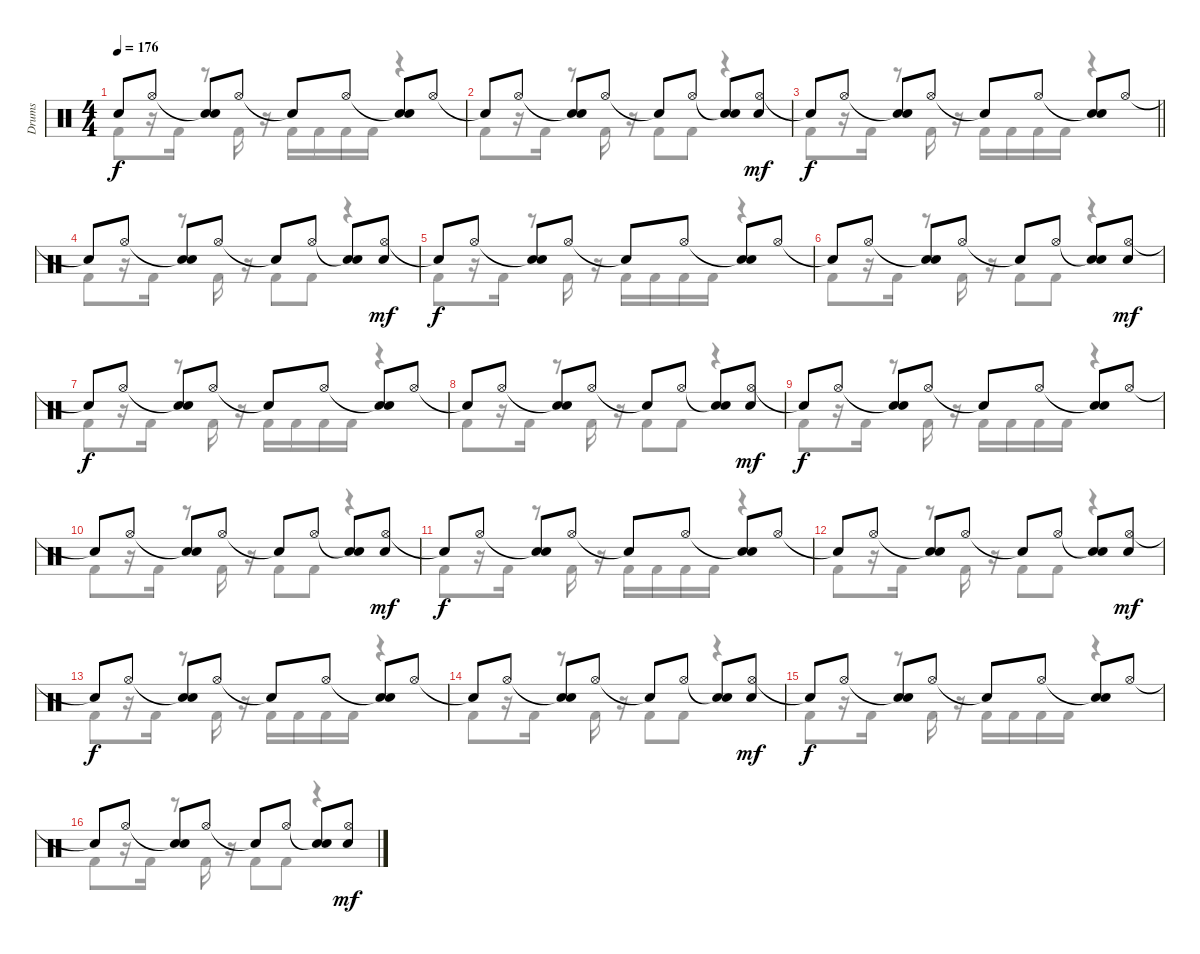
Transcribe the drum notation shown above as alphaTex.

\track ("Drums" "Drums") {instrument percussion}
\staff {score}
\articulation defaults
\voice
\ts (4 4)
\tempo 176
\clef neutral
\ks c "Snare (hit)"{t}.8{dy f} "Hi-Hat (open)".8
("Snare (hit)"{t} "Snare (hit) 2").8 "Hi-Hat (open)".8 "Snare (hit)"{t}.8 "Hi-Hat (open)".8 ("Snare (hit)"{t} "Snare (hit) 2").8 "Hi-Hat (open)".8 |
"Snare (hit)"{t}.8 "Hi-Hat (open)".8 ("Snare (hit)"{t} "Snare (hit) 2").8 "Hi-Hat (open)".8 "Snare (hit)"{t}.8 "Hi-Hat (open)".8 ("Snare (hit)"{t} "Snare (hit) 2").8 ("Hi-Hat (open)" "Electric Snare (hit)").8{dy mf} |
\barLineRight lightlight "Snare (hit)"{t}.8{dy f} "Hi-Hat (open)".8
("Snare (hit)"{t} "Snare (hit) 2").8 "Hi-Hat (open)".8 "Snare (hit)"{t}.8 "Hi-Hat (open)".8 ("Snare (hit)"{t} "Snare (hit) 2").8 "Hi-Hat (open)".8 |
"Snare (hit)"{t}.8 "Hi-Hat (open)".8 ("Snare (hit)"{t} "Snare (hit) 2").8 "Hi-Hat (open)".8 "Snare (hit)"{t}.8 "Hi-Hat (open)".8 ("Snare (hit)"{t} "Snare (hit) 2").8 ("Hi-Hat (open)" "Electric Snare (hit)").8{dy mf} |
"Snare (hit)"{t}.8{dy f} "Hi-Hat (open)".8 ("Snare (hit)"{t} "Snare (hit) 2").8 "Hi-Hat (open)".8 "Snare (hit)"{t}.8 "Hi-Hat (open)".8 ("Snare (hit)"{t} "Snare (hit) 2").8 "Hi-Hat (open)".8 |
"Snare (hit)"{t}.8 "Hi-Hat (open)".8 ("Snare (hit)"{t} "Snare (hit) 2").8 "Hi-Hat (open)".8 "Snare (hit)"{t}.8 "Hi-Hat (open)".8 ("Snare (hit)"{t} "Snare (hit) 2").8 ("Hi-Hat (open)" "Electric Snare (hit)").8{dy mf} |
"Snare (hit)"{t}.8{dy f} "Hi-Hat (open)".8 ("Snare (hit)"{t} "Snare (hit) 2").8 "Hi-Hat (open)".8 "Snare (hit)"{t}.8 "Hi-Hat (open)".8 ("Snare (hit)"{t} "Snare (hit) 2").8 "Hi-Hat (open)".8 |
"Snare (hit)"{t}.8 "Hi-Hat (open)".8 ("Snare (hit)"{t} "Snare (hit) 2").8 "Hi-Hat (open)".8 "Snare (hit)"{t}.8 "Hi-Hat (open)".8 ("Snare (hit)"{t} "Snare (hit) 2").8 ("Hi-Hat (open)" "Electric Snare (hit)").8{dy mf} |
"Snare (hit)"{t}.8{dy f} "Hi-Hat (open)".8 ("Snare (hit)"{t} "Snare (hit) 2").8 "Hi-Hat (open)".8 "Snare (hit)"{t}.8 "Hi-Hat (open)".8 ("Snare (hit)"{t} "Snare (hit) 2").8 "Hi-Hat (open)".8 |
"Snare (hit)"{t}.8 "Hi-Hat (open)".8 ("Snare (hit)"{t} "Snare (hit) 2").8 "Hi-Hat (open)".8 "Snare (hit)"{t}.8 "Hi-Hat (open)".8 ("Snare (hit)"{t} "Snare (hit) 2").8 ("Hi-Hat (open)" "Electric Snare (hit)").8{dy mf} |
"Snare (hit)"{t}.8{dy f} "Hi-Hat (open)".8 ("Snare (hit)"{t} "Snare (hit) 2").8 "Hi-Hat (open)".8 "Snare (hit)"{t}.8 "Hi-Hat (open)".8 ("Snare (hit)"{t} "Snare (hit) 2").8 "Hi-Hat (open)".8 |
"Snare (hit)"{t}.8 "Hi-Hat (open)".8 ("Snare (hit)"{t} "Snare (hit) 2").8 "Hi-Hat (open)".8 "Snare (hit)"{t}.8 "Hi-Hat (open)".8 ("Snare (hit)"{t} "Snare (hit) 2").8 ("Hi-Hat (open)" "Electric Snare (hit)").8{dy mf} |
"Snare (hit)"{t}.8{dy f} "Hi-Hat (open)".8 ("Snare (hit)"{t} "Snare (hit) 2").8 "Hi-Hat (open)".8 "Snare (hit)"{t}.8 "Hi-Hat (open)".8 ("Snare (hit)"{t} "Snare (hit) 2").8 "Hi-Hat (open)".8 |
"Snare (hit)"{t}.8 "Hi-Hat (open)".8 ("Snare (hit)"{t} "Snare (hit) 2").8 "Hi-Hat (open)".8 "Snare (hit)"{t}.8 "Hi-Hat (open)".8 ("Snare (hit)"{t} "Snare (hit) 2").8 ("Hi-Hat (open)" "Electric Snare (hit)").8{dy mf} |
"Snare (hit)"{t}.8{dy f} "Hi-Hat (open)".8 ("Snare (hit)"{t} "Snare (hit) 2").8 "Hi-Hat (open)".8 "Snare (hit)"{t}.8 "Hi-Hat (open)".8 ("Snare (hit)"{t} "Snare (hit) 2").8 "Hi-Hat (open)".8 |
"Snare (hit)"{t}.8 "Hi-Hat (open)".8 ("Snare (hit)"{t} "Snare (hit) 2").8 "Hi-Hat (open)".8 "Snare (hit)"{t}.8 "Hi-Hat (open)".8 ("Snare (hit)"{t} "Snare (hit) 2").8 ("Hi-Hat (open)" "Electric Snare (hit)").8{dy mf}
\voice
\clef neutral
\ottava regular
\simile none
\ks c "Kick (hit) 2".8{dy f}
r.16 "Kick (hit) 2".16 r.8 "Kick (hit) 2".16 r.16 "Kick (hit) 2".16 "Kick (hit) 2".16 "Kick (hit) 2".16 "Kick (hit) 2".16 r.4 |
"Kick (hit) 2".8 r.16 "Kick (hit) 2".16 r.8 "Kick (hit) 2".16 r.16 "Kick (hit) 2".8 "Kick (hit) 2".8 r.4 |
\barLineRight lightlight "Kick (hit) 2".8
r.16 "Kick (hit) 2".16 r.8 "Kick (hit) 2".16 r.16 "Kick (hit) 2".16 "Kick (hit) 2".16 "Kick (hit) 2".16 "Kick (hit) 2".16 r.4 |
"Kick (hit) 2".8 r.16 "Kick (hit) 2".16 r.8 "Kick (hit) 2".16 r.16 "Kick (hit) 2".8 "Kick (hit) 2".8 r.4 |
"Kick (hit) 2".8 r.16 "Kick (hit) 2".16 r.8 "Kick (hit) 2".16 r.16 "Kick (hit) 2".16 "Kick (hit) 2".16 "Kick (hit) 2".16 "Kick (hit) 2".16 r.4 |
"Kick (hit) 2".8 r.16 "Kick (hit) 2".16 r.8 "Kick (hit) 2".16 r.16 "Kick (hit) 2".8 "Kick (hit) 2".8 r.4 |
"Kick (hit) 2".8 r.16 "Kick (hit) 2".16 r.8 "Kick (hit) 2".16 r.16 "Kick (hit) 2".16 "Kick (hit) 2".16 "Kick (hit) 2".16 "Kick (hit) 2".16 r.4 |
"Kick (hit) 2".8 r.16 "Kick (hit) 2".16 r.8 "Kick (hit) 2".16 r.16 "Kick (hit) 2".8 "Kick (hit) 2".8 r.4 |
"Kick (hit) 2".8 r.16 "Kick (hit) 2".16 r.8 "Kick (hit) 2".16 r.16 "Kick (hit) 2".16 "Kick (hit) 2".16 "Kick (hit) 2".16 "Kick (hit) 2".16 r.4 |
"Kick (hit) 2".8 r.16 "Kick (hit) 2".16 r.8 "Kick (hit) 2".16 r.16 "Kick (hit) 2".8 "Kick (hit) 2".8 r.4 |
"Kick (hit) 2".8 r.16 "Kick (hit) 2".16 r.8 "Kick (hit) 2".16 r.16 "Kick (hit) 2".16 "Kick (hit) 2".16 "Kick (hit) 2".16 "Kick (hit) 2".16 r.4 |
"Kick (hit) 2".8 r.16 "Kick (hit) 2".16 r.8 "Kick (hit) 2".16 r.16 "Kick (hit) 2".8 "Kick (hit) 2".8 r.4 |
"Kick (hit) 2".8 r.16 "Kick (hit) 2".16 r.8 "Kick (hit) 2".16 r.16 "Kick (hit) 2".16 "Kick (hit) 2".16 "Kick (hit) 2".16 "Kick (hit) 2".16 r.4 |
"Kick (hit) 2".8 r.16 "Kick (hit) 2".16 r.8 "Kick (hit) 2".16 r.16 "Kick (hit) 2".8 "Kick (hit) 2".8 r.4 |
"Kick (hit) 2".8 r.16 "Kick (hit) 2".16 r.8 "Kick (hit) 2".16 r.16 "Kick (hit) 2".16 "Kick (hit) 2".16 "Kick (hit) 2".16 "Kick (hit) 2".16 r.4 |
"Kick (hit) 2".8 r.16 "Kick (hit) 2".16 r.8 "Kick (hit) 2".16 r.16 "Kick (hit) 2".8 "Kick (hit) 2".8 r.4
